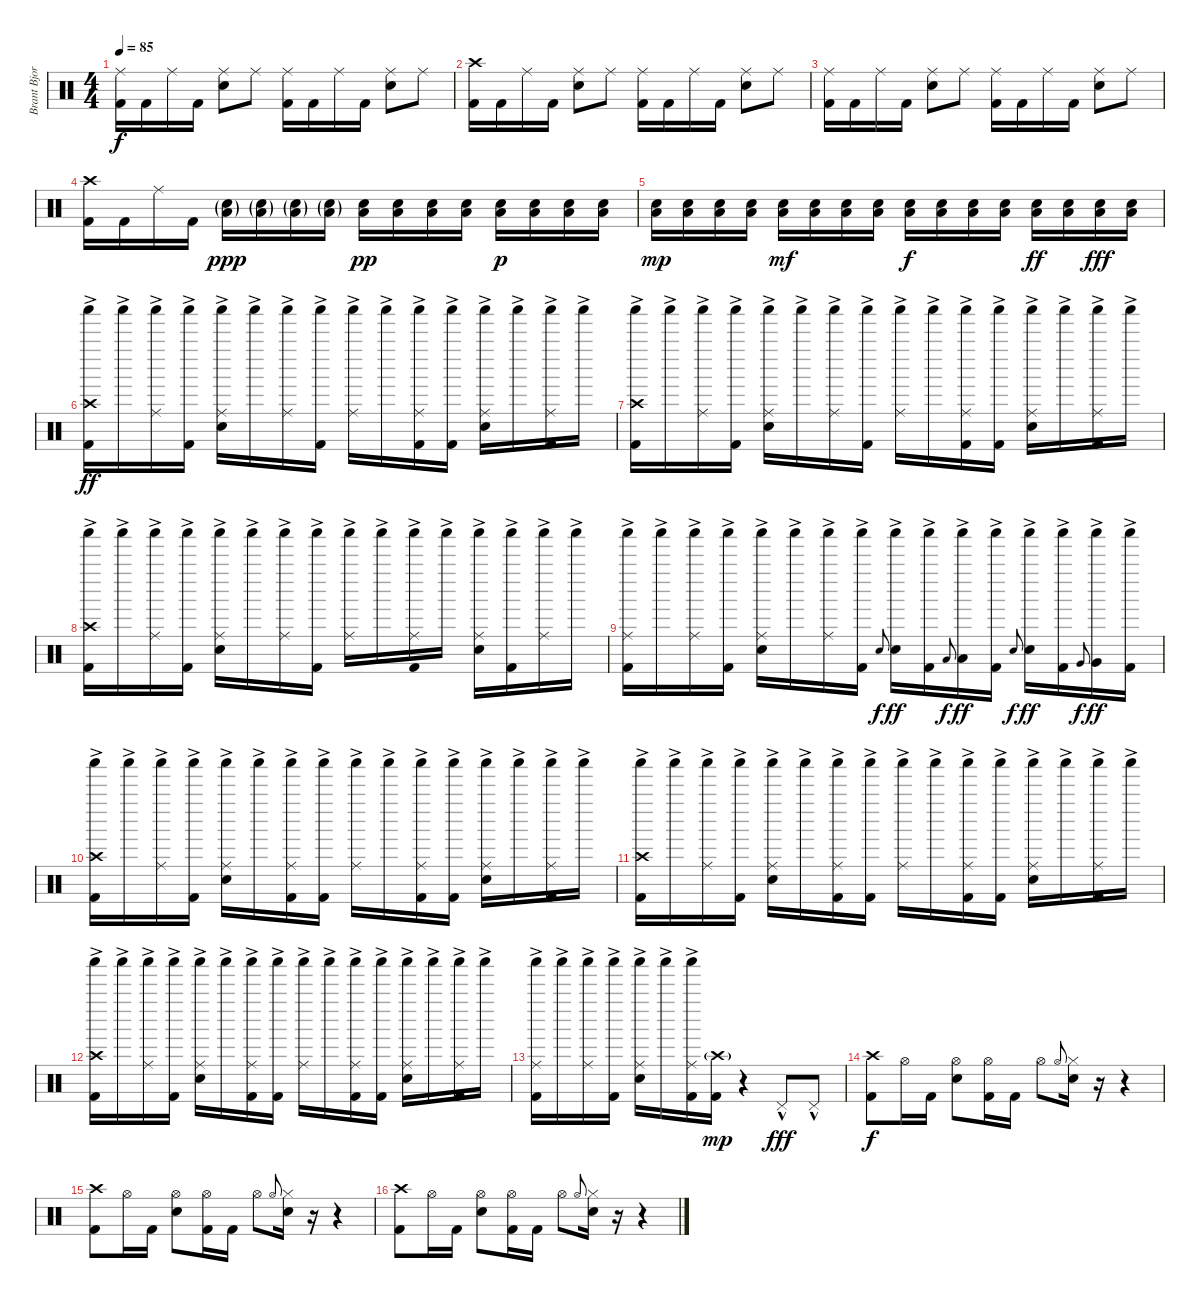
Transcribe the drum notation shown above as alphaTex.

\track ("Brant Bjork" "Brant Bjor") {instrument percussion}
\staff {score}
\articulation defaults
\ts (4 4)
\tempo 85
\clef neutral
\ks c
("Ride (middle)" "Kick (hit) 2").16{dy f} "Kick (hit) 2".16 "Ride (middle)".16 "Kick (hit) 2".16 ("Ride (middle)" "Electric Snare (hit)").8 "Ride (middle)".8 ("Ride (middle)" "Kick (hit) 2").16 "Kick (hit) 2".16 "Ride (middle)".16 "Kick (hit) 2".16 ("Ride (middle)" "Electric Snare (hit)").8 "Ride (middle)".8 |
("Crash high (hit)" "Kick (hit) 2").16 "Kick (hit) 2".16 "Ride (middle)".16 "Kick (hit) 2".16 ("Ride (middle)" "Electric Snare (hit)").8 "Ride (middle)".8 ("Ride (middle)" "Kick (hit) 2").16 "Kick (hit) 2".16 "Ride (middle)".16 "Kick (hit) 2".16 ("Ride (middle)" "Electric Snare (hit)").8 "Ride (middle)".8 |
("Ride (middle)" "Kick (hit) 2").16 "Kick (hit) 2".16 "Ride (middle)".16 "Kick (hit) 2".16 ("Ride (middle)" "Electric Snare (hit)").8 "Ride (middle)".8 ("Ride (middle)" "Kick (hit) 2").16 "Kick (hit) 2".16 "Ride (middle)".16 "Kick (hit) 2".16 ("Ride (middle)" "Electric Snare (hit)").8 "Ride (middle)".8 |
("Crash high (hit)" "Kick (hit) 2").16 "Kick (hit) 2".16 "Ride (middle)".16 "Kick (hit) 2".16 ("Low Floor Tom (hit)"{g} "Electric Snare (hit)"{g}).16{dy ppp} ("Low Floor Tom (hit)"{g} "Electric Snare (hit)"{g}).16 ("Low Floor Tom (hit)"{g} "Electric Snare (hit)"{g}).16 ("Low Floor Tom (hit)"{g} "Electric Snare (hit)"{g}).16 ("Low Floor Tom (hit)" "Electric Snare (hit)").16{dy pp} ("Low Floor Tom (hit)" "Electric Snare (hit)").16 ("Low Floor Tom (hit)" "Electric Snare (hit)").16 ("Low Floor Tom (hit)" "Electric Snare (hit)").16 ("Low Floor Tom (hit)" "Electric Snare (hit)").16{dy p} ("Low Floor Tom (hit)" "Electric Snare (hit)").16 ("Low Floor Tom (hit)" "Electric Snare (hit)").16 ("Low Floor Tom (hit)" "Electric Snare (hit)").16 |
("Low Floor Tom (hit)" "Electric Snare (hit)").16{dy mp} ("Low Floor Tom (hit)" "Electric Snare (hit)").16 ("Low Floor Tom (hit)" "Electric Snare (hit)").16 ("Low Floor Tom (hit)" "Electric Snare (hit)").16 ("Low Floor Tom (hit)" "Electric Snare (hit)").16{dy mf} ("Low Floor Tom (hit)" "Electric Snare (hit)").16 ("Low Floor Tom (hit)" "Electric Snare (hit)").16 ("Low Floor Tom (hit)" "Electric Snare (hit)").16 ("Low Floor Tom (hit)" "Electric Snare (hit)").16{dy f} ("Low Floor Tom (hit)" "Electric Snare (hit)").16 ("Low Floor Tom (hit)" "Electric Snare (hit)").16 ("Low Floor Tom (hit)" "Electric Snare (hit)").16 ("Low Floor Tom (hit)" "Electric Snare (hit)").16{dy ff} ("Low Floor Tom (hit)" "Electric Snare (hit)").16 ("Low Floor Tom (hit)" "Electric Snare (hit)").16{dy fff} ("Low Floor Tom (hit)" "Electric Snare (hit)").16 |
("Shaker (hit)"{ac} "Kick (hit) 2" "Crash high (hit)").16{dy ff volume 13} "Shaker (hit)"{ac}.16 ("Shaker (hit)"{ac} "Ride (middle)").16 ("Shaker (hit)"{ac} "Kick (hit) 2").16 ("Shaker (hit)"{ac} "Ride (middle)" "Electric Snare (hit)").16 "Shaker (hit)"{ac}.16 ("Shaker (hit)"{ac} "Ride (middle)").16 ("Shaker (hit)"{ac} "Kick (hit) 2").16 ("Shaker (hit)"{ac} "Ride (middle)").16 "Shaker (hit)"{ac}.16 ("Shaker (hit)"{ac} "Ride (middle)" "Kick (hit) 2").16 ("Shaker (hit)"{ac} "Kick (hit) 2").16 ("Shaker (hit)"{ac} "Ride (middle)" "Electric Snare (hit)").16 "Shaker (hit)"{ac}.16 ("Shaker (hit)"{ac} "Ride (middle)" "Kick (hit) 2").16 "Shaker (hit)"{ac}.16 |
("Shaker (hit)"{ac} "Kick (hit) 2" "Crash high (hit)").16 "Shaker (hit)"{ac}.16 ("Shaker (hit)"{ac} "Ride (middle)").16 ("Shaker (hit)"{ac} "Kick (hit) 2").16 ("Shaker (hit)"{ac} "Ride (middle)" "Electric Snare (hit)").16 "Shaker (hit)"{ac}.16 ("Shaker (hit)"{ac} "Ride (middle)").16 ("Shaker (hit)"{ac} "Kick (hit) 2").16 ("Shaker (hit)"{ac} "Ride (middle)").16 "Shaker (hit)"{ac}.16 ("Shaker (hit)"{ac} "Ride (middle)" "Kick (hit) 2").16 ("Shaker (hit)"{ac} "Kick (hit) 2").16 ("Shaker (hit)"{ac} "Ride (middle)" "Electric Snare (hit)").16 "Shaker (hit)"{ac}.16 ("Shaker (hit)"{ac} "Ride (middle)" "Kick (hit) 2").16 "Shaker (hit)"{ac}.16 |
("Shaker (hit)"{ac} "Kick (hit) 2" "Crash high (hit)").16 "Shaker (hit)"{ac}.16 ("Shaker (hit)"{ac} "Ride (middle)").16 ("Shaker (hit)"{ac} "Kick (hit) 2").16 ("Shaker (hit)"{ac} "Ride (middle)" "Electric Snare (hit)").16 "Shaker (hit)"{ac}.16 ("Shaker (hit)"{ac} "Ride (middle)").16 ("Shaker (hit)"{ac} "Kick (hit) 2").16 ("Shaker (hit)"{ac} "Ride (middle)").16 "Shaker (hit)"{ac}.16 ("Shaker (hit)"{ac} "Ride (middle)" "Kick (hit) 2").16 "Shaker (hit)"{ac}.16 ("Shaker (hit)"{ac} "Ride (middle)" "Electric Snare (hit)").16 ("Shaker (hit)"{ac} "Kick (hit) 2").16 ("Shaker (hit)"{ac} "Ride (middle)").16 "Shaker (hit)"{ac}.16 |
("Shaker (hit)"{ac} "Kick (hit) 2" "Ride (middle)").16 "Shaker (hit)"{ac}.16 ("Shaker (hit)"{ac} "Ride (middle)").16 ("Shaker (hit)"{ac} "Kick (hit) 2").16 ("Shaker (hit)"{ac} "Ride (middle)" "Electric Snare (hit)").16 "Shaker (hit)"{ac}.16 ("Shaker (hit)"{ac} "Ride (middle)").16 ("Shaker (hit)"{ac} "Kick (hit) 2").16 "Electric Snare (hit)".8{gr onbeat dy f} ("Shaker (hit)"{ac} "Electric Snare (hit)").16{dy ff} ("Shaker (hit)"{ac} "Kick (hit) 2").16 "Low Tom (hit)".8{gr onbeat dy f} ("Shaker (hit)"{ac} "Low Tom (hit)").16{dy ff} ("Shaker (hit)"{ac} "Kick (hit) 2").16 "Electric Snare (hit)".8{gr onbeat dy f} ("Shaker (hit)"{ac} "Electric Snare (hit)").16{dy ff} ("Shaker (hit)"{ac} "Kick (hit) 2").16 "Very Low Tom (hit)".8{gr onbeat dy f} ("Shaker (hit)"{ac} "Very Low Tom (hit)").16{dy ff} ("Shaker (hit)"{ac} "Kick (hit) 2").16 |
("Shaker (hit)"{ac} "Kick (hit) 2" "Crash high (hit)").16 "Shaker (hit)"{ac}.16 ("Shaker (hit)"{ac} "Ride (middle)").16 ("Shaker (hit)"{ac} "Kick (hit) 2").16 ("Shaker (hit)"{ac} "Ride (middle)" "Electric Snare (hit)").16 "Shaker (hit)"{ac}.16 ("Shaker (hit)"{ac} "Ride (middle)" "Kick (hit) 2").16 ("Shaker (hit)"{ac} "Kick (hit) 2").16 ("Shaker (hit)"{ac} "Ride (middle)").16 "Shaker (hit)"{ac}.16 ("Shaker (hit)"{ac} "Ride (middle)" "Kick (hit) 2").16 ("Shaker (hit)"{ac} "Kick (hit) 2").16 ("Shaker (hit)"{ac} "Ride (middle)" "Electric Snare (hit)").16 "Shaker (hit)"{ac}.16 ("Shaker (hit)"{ac} "Ride (middle)" "Kick (hit) 2").16 "Shaker (hit)"{ac}.16 |
("Shaker (hit)"{ac} "Kick (hit) 2" "Crash high (hit)").16 "Shaker (hit)"{ac}.16 ("Shaker (hit)"{ac} "Ride (middle)").16 ("Shaker (hit)"{ac} "Kick (hit) 2").16 ("Shaker (hit)"{ac} "Ride (middle)" "Electric Snare (hit)").16 "Shaker (hit)"{ac}.16 ("Shaker (hit)"{ac} "Ride (middle)" "Kick (hit) 2").16 ("Shaker (hit)"{ac} "Kick (hit) 2").16 ("Shaker (hit)"{ac} "Ride (middle)").16 "Shaker (hit)"{ac}.16 ("Shaker (hit)"{ac} "Ride (middle)" "Kick (hit) 2").16 ("Shaker (hit)"{ac} "Kick (hit) 2").16 ("Shaker (hit)"{ac} "Ride (middle)" "Electric Snare (hit)").16 "Shaker (hit)"{ac}.16 ("Shaker (hit)"{ac} "Ride (middle)" "Kick (hit) 2").16 "Shaker (hit)"{ac}.16 |
("Shaker (hit)"{ac} "Kick (hit) 2" "Crash high (hit)").16 "Shaker (hit)"{ac}.16 ("Shaker (hit)"{ac} "Ride (middle)").16 ("Shaker (hit)"{ac} "Kick (hit) 2").16 ("Shaker (hit)"{ac} "Ride (middle)" "Electric Snare (hit)").16 "Shaker (hit)"{ac}.16 ("Shaker (hit)"{ac} "Ride (middle)" "Kick (hit) 2").16 ("Shaker (hit)"{ac} "Kick (hit) 2").16 ("Shaker (hit)"{ac} "Ride (middle)").16 "Shaker (hit)"{ac}.16 ("Shaker (hit)"{ac} "Ride (middle)" "Kick (hit) 2").16 ("Shaker (hit)"{ac} "Kick (hit) 2").16 ("Shaker (hit)"{ac} "Ride (middle)" "Electric Snare (hit)").16 "Shaker (hit)"{ac}.16 ("Shaker (hit)"{ac} "Ride (middle)" "Kick (hit) 2").16 "Shaker (hit)"{ac}.16 |
("Shaker (hit)"{ac} "Ride (middle)" "Kick (hit) 2").16 "Shaker (hit)"{ac}.16 ("Shaker (hit)"{ac} "Ride (middle)").16 ("Shaker (hit)"{ac} "Kick (hit) 2").16 ("Shaker (hit)"{ac} "Ride (middle)" "Electric Snare (hit)").16 "Shaker (hit)"{ac}.16 ("Shaker (hit)"{ac} "Ride (middle)" "Kick (hit) 2").16 ("Crash high (hit)"{g} "Kick (hit) 2").16{dy mp} r.4{volume 0} "Pedal Hi-Hat (hit)"{hac}.8{dy fff volume 3} "Pedal Hi-Hat (hit)"{hac}.8 |
("Kick (hit) 2" "Crash high (hit)").8{dy f volume 13} "Hi-Hat (open)".16 "Kick (hit) 2".16 ("Hi-Hat (open)" "Electric Snare (hit)").8 ("Hi-Hat (open)" "Kick (hit) 2").16 "Kick (hit) 2".16 "Hi-Hat (open)".8 "Hi-Hat (open)".8{gr onbeat} ("Hi-Hat (closed)" "Electric Snare (hit)").16 r.16{volume 0} r.4 |
("Kick (hit) 2" "Crash high (hit)").8{volume 13} "Hi-Hat (open)".16 "Kick (hit) 2".16 ("Hi-Hat (open)" "Electric Snare (hit)").8 ("Hi-Hat (open)" "Kick (hit) 2").16 "Kick (hit) 2".16 "Hi-Hat (open)".8 "Hi-Hat (open)".8{gr onbeat} ("Hi-Hat (closed)" "Electric Snare (hit)").16 r.16{volume 0} r.4 |
("Kick (hit) 2" "Crash high (hit)").8{volume 13} "Hi-Hat (open)".16 "Kick (hit) 2".16 ("Hi-Hat (open)" "Electric Snare (hit)").8 ("Hi-Hat (open)" "Kick (hit) 2").16 "Kick (hit) 2".16 "Hi-Hat (open)".8 "Hi-Hat (open)".8{gr onbeat} ("Hi-Hat (closed)" "Electric Snare (hit)").16 r.16{volume 0} r.4
